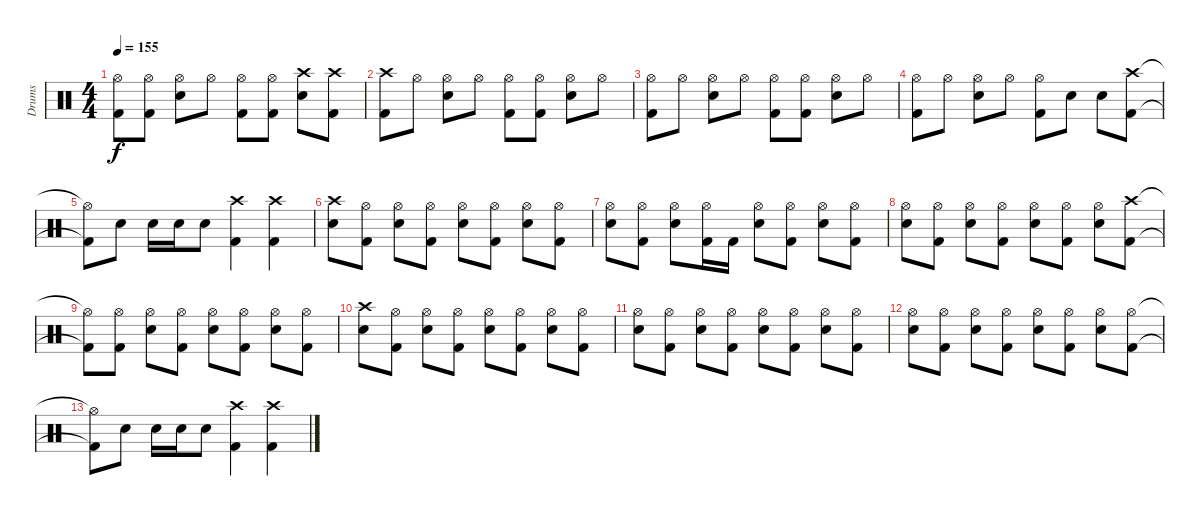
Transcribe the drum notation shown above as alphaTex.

\track ("Drums" "Drums") {instrument percussion}
\staff {score}
\articulation defaults
\ts (4 4)
\tempo 155
\clef neutral
\ks c
("Hi-Hat (open)"{t} "Kick (hit) 2"{t}).8{dy f} ("Hi-Hat (open)" "Kick (hit) 2").8 ("Hi-Hat (open)" "Electric Snare (hit)").8 "Hi-Hat (open)".8 ("Hi-Hat (open)" "Kick (hit) 2").8 ("Hi-Hat (open)" "Kick (hit) 2").8 ("Crash high (hit)" "Electric Snare (hit)").8 ("Crash high (hit)" "Kick (hit) 2").8 |
("Crash high (hit)" "Kick (hit) 2").8 "Hi-Hat (open)".8 ("Hi-Hat (open)" "Electric Snare (hit)").8 "Hi-Hat (open)".8 ("Hi-Hat (open)" "Kick (hit) 2").8 ("Hi-Hat (open)" "Kick (hit) 2").8 ("Hi-Hat (open)" "Electric Snare (hit)").8 "Hi-Hat (open)".8 |
("Hi-Hat (open)" "Kick (hit) 2").8 "Hi-Hat (open)".8 ("Hi-Hat (open)" "Electric Snare (hit)").8 "Hi-Hat (open)".8 ("Hi-Hat (open)" "Kick (hit) 2").8 ("Hi-Hat (open)" "Kick (hit) 2").8 ("Hi-Hat (open)" "Electric Snare (hit)").8 "Hi-Hat (open)".8 |
("Hi-Hat (open)" "Kick (hit) 2").8 "Hi-Hat (open)".8 ("Hi-Hat (open)" "Electric Snare (hit)").8 "Hi-Hat (open)".8 ("Hi-Hat (open)" "Kick (hit) 2").8 "Electric Snare (hit)".8 "Electric Snare (hit)".8 ("Crash high (hit)" "Kick (hit) 2").8 |
("Hi-Hat (open)"{t} "Kick (hit) 2"{t}).8 "Electric Snare (hit)".8 "Electric Snare (hit)".16 "Electric Snare (hit)".16 "Electric Snare (hit)".8 ("Crash high (hit)" "Kick (hit) 2").4 ("Crash high (hit)" "Kick (hit) 2").4 |
("Crash high (hit)" "Electric Snare (hit)").8 ("Hi-Hat (open)" "Kick (hit) 2").8 ("Hi-Hat (open)" "Electric Snare (hit)").8 ("Hi-Hat (open)" "Kick (hit) 2").8 ("Hi-Hat (open)" "Electric Snare (hit)").8 ("Hi-Hat (open)" "Kick (hit) 2").8 ("Hi-Hat (open)" "Electric Snare (hit)").8 ("Hi-Hat (open)" "Kick (hit) 2").8 |
("Hi-Hat (open)" "Electric Snare (hit)").8 ("Hi-Hat (open)" "Kick (hit) 2").8 ("Hi-Hat (open)" "Electric Snare (hit)").8 ("Hi-Hat (open)" "Kick (hit) 2").16 "Kick (hit) 2".16 ("Hi-Hat (open)" "Electric Snare (hit)").8 ("Hi-Hat (open)" "Kick (hit) 2").8 ("Hi-Hat (open)" "Electric Snare (hit)").8 ("Hi-Hat (open)" "Kick (hit) 2").8 |
("Hi-Hat (open)" "Electric Snare (hit)").8 ("Hi-Hat (open)" "Kick (hit) 2").8 ("Hi-Hat (open)" "Electric Snare (hit)").8 ("Hi-Hat (open)" "Kick (hit) 2").8 ("Hi-Hat (open)" "Electric Snare (hit)").8 ("Hi-Hat (open)" "Kick (hit) 2").8 ("Hi-Hat (open)" "Electric Snare (hit)").8 ("Crash high (hit)" "Kick (hit) 2").8 |
("Hi-Hat (open)"{t} "Kick (hit) 2"{t}).8 ("Hi-Hat (open)" "Kick (hit) 2").8 ("Hi-Hat (open)" "Electric Snare (hit)").8 ("Hi-Hat (open)" "Kick (hit) 2").8 ("Hi-Hat (open)" "Electric Snare (hit)").8 ("Hi-Hat (open)" "Kick (hit) 2").8 ("Hi-Hat (open)" "Electric Snare (hit)").8 ("Hi-Hat (open)" "Kick (hit) 2").8 |
("Crash high (hit)" "Electric Snare (hit)").8 ("Hi-Hat (open)" "Kick (hit) 2").8 ("Hi-Hat (open)" "Electric Snare (hit)").8 ("Hi-Hat (open)" "Kick (hit) 2").8 ("Hi-Hat (open)" "Electric Snare (hit)").8 ("Hi-Hat (open)" "Kick (hit) 2").8 ("Hi-Hat (open)" "Electric Snare (hit)").8 ("Hi-Hat (open)" "Kick (hit) 2").8 |
("Hi-Hat (open)" "Electric Snare (hit)").8 ("Hi-Hat (open)" "Kick (hit) 2").8 ("Hi-Hat (open)" "Electric Snare (hit)").8 ("Hi-Hat (open)" "Kick (hit) 2").8 ("Hi-Hat (open)" "Electric Snare (hit)").8 ("Hi-Hat (open)" "Kick (hit) 2").8 ("Hi-Hat (open)" "Electric Snare (hit)").8 ("Hi-Hat (open)" "Kick (hit) 2").8 |
("Hi-Hat (open)" "Electric Snare (hit)").8 ("Hi-Hat (open)" "Kick (hit) 2").8 ("Hi-Hat (open)" "Electric Snare (hit)").8 ("Hi-Hat (open)" "Kick (hit) 2").8 ("Hi-Hat (open)" "Electric Snare (hit)").8 ("Hi-Hat (open)" "Kick (hit) 2").8 ("Hi-Hat (open)" "Electric Snare (hit)").8 ("Hi-Hat (open)" "Kick (hit) 2").8 |
("Hi-Hat (open)"{t} "Kick (hit) 2"{t}).8 "Electric Snare (hit)".8 "Electric Snare (hit)".16 "Electric Snare (hit)".16 "Electric Snare (hit)".8 ("Crash high (hit)" "Kick (hit) 2").4 ("Crash high (hit)" "Kick (hit) 2").4
